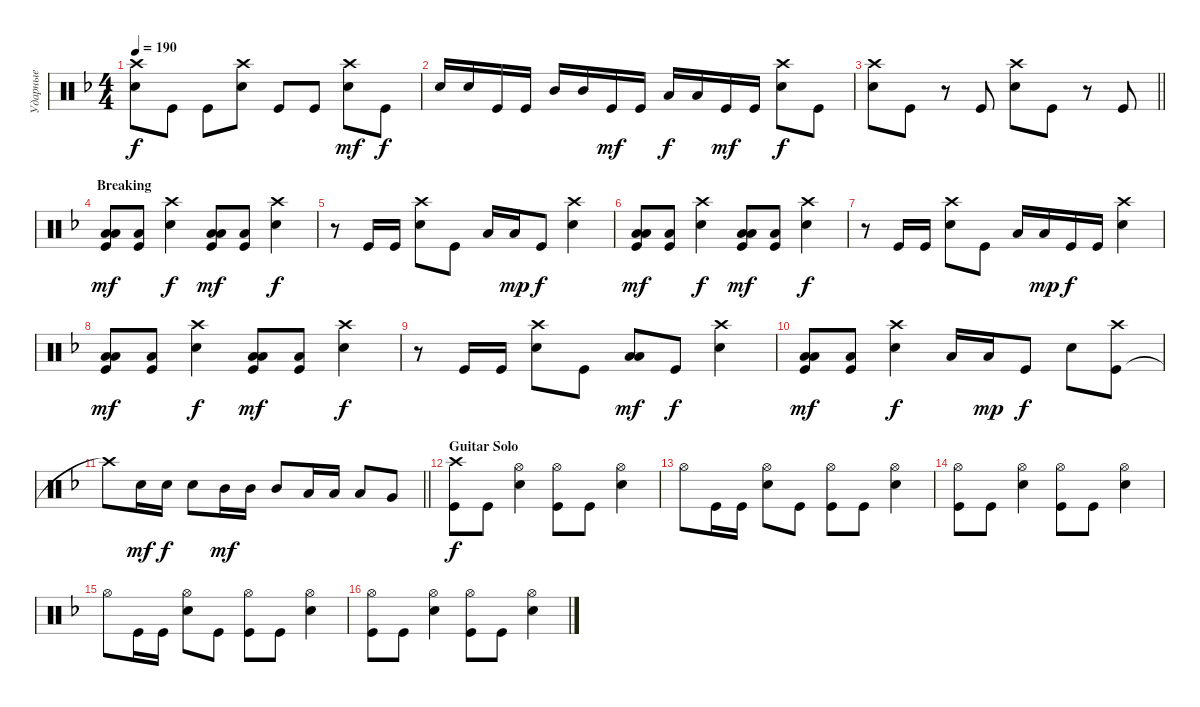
\track ("Ударные" "Ударные") {instrument percussion}
\staff {score}
\articulation defaults
\ts (4 4)
\tempo 190
\clef neutral
\ks dminor
("Snare (hit) 2" "Crash high (hit)").8{dy f} "Kick (hit)".8 "Kick (hit)".8 ("Snare (hit) 2" "Crash high (hit)").8 "Kick (hit)".8 "Kick (hit)".8 ("Snare (hit) 2" "Crash high (hit)").8{dy mf} "Kick (hit)".8{dy f} |
"Snare (hit) 2".16 "Snare (hit) 2".16 "Kick (hit)".16 "Kick (hit)".16 "Mid Tom (hit)".16 "Mid Tom (hit)".16 "Kick (hit)".16{dy mf} "Kick (hit)".16 "Low Tom (hit)".16{dy f} "Low Tom (hit)".16 "Kick (hit)".16{dy mf} "Kick (hit)".16 ("Snare (hit) 2" "Crash high (hit)").8{dy f} "Kick (hit)".8 |
\barLineRight lightlight
("Snare (hit) 2" "Crash high (hit)").8 "Kick (hit)".8 r.8 "Kick (hit)".8 ("Snare (hit) 2" "Crash high (hit)").8 "Kick (hit)".8 r.8 "Kick (hit)".8 |
\section ("" "Breaking")
("Low Tom (hit)" "Low Tom (hit)" "Kick (hit)").8{bd 240 dy mf} ("Kick (hit)" "Low Tom (hit)").8 ("Snare (hit) 2" "Crash high (hit)").4{dy f} ("Low Tom (hit)" "Low Tom (hit)" "Kick (hit)").8{bd 240 dy mf} ("Kick (hit)" "Low Tom (hit)").8 ("Snare (hit) 2" "Crash high (hit)").4{dy f} |
r.8 "Kick (hit)".16 "Kick (hit)".16 ("Snare (hit) 2" "Crash high (hit)").8 "Kick (hit)".8 "Low Tom (hit)".16{bd 240} "Low Tom (hit)".16{dy mp} "Kick (hit)".8{dy f} ("Snare (hit) 2" "Crash high (hit)").4 |
("Low Tom (hit)" "Kick (hit)" "Low Tom (hit)").8{bd 60 dy mf} ("Kick (hit)" "Low Tom (hit)").8 ("Snare (hit) 2" "Crash high (hit)").4{dy f} ("Low Tom (hit)" "Low Tom (hit)" "Kick (hit)").8{bd 60 dy mf} ("Kick (hit)" "Low Tom (hit)").8 ("Snare (hit) 2" "Crash high (hit)").4{dy f} |
r.8 "Kick (hit)".16 "Kick (hit)".16 ("Snare (hit) 2" "Crash high (hit)").8 "Kick (hit)".8 "Low Tom (hit)".16{bd 240} "Low Tom (hit)".16{dy mp} "Kick (hit)".16{dy f} "Kick (hit)".16 ("Snare (hit) 2" "Crash high (hit)").4 |
("Low Tom (hit)" "Kick (hit)" "Low Tom (hit)").8{bd 60 dy mf} ("Kick (hit)" "Low Tom (hit)").8 ("Snare (hit) 2" "Crash high (hit)").4{dy f} ("Low Tom (hit)" "Low Tom (hit)" "Kick (hit)").8{bd 60 dy mf} ("Kick (hit)" "Low Tom (hit)").8 ("Snare (hit) 2" "Crash high (hit)").4{dy f} |
r.8 "Kick (hit)".16 "Kick (hit)".16 ("Snare (hit) 2" "Crash high (hit)").8 "Kick (hit)".8 ("Low Tom (hit)" "Low Tom (hit)").8{bd 240 dy mf} "Kick (hit)".8{dy f} ("Snare (hit) 2" "Crash high (hit)").4 |
("Low Tom (hit)" "Kick (hit)" "Low Tom (hit)").8{bd 60 dy mf} ("Kick (hit)" "Low Tom (hit)").8 ("Snare (hit) 2" "Crash high (hit)").4{dy f} "Low Tom (hit)".16{bd 240} "Low Tom (hit)".16{dy mp} "Kick (hit)".8{dy f} "Snare (hit) 2".8 ("Kick (hit)" "Crash high (hit)").8 |
\barLineRight lightlight "Crash high (hit)"{t}.8 "Snare (hit) 2".16{dy mf} "Snare (hit) 2".16{dy f} "Snare (hit) 2".8 "Mid Tom (hit)".16{dy mf} "Mid Tom (hit)".16 "Mid Tom (hit)".8 "Low Tom (hit)".16 "Low Tom (hit)".16 "Low Tom (hit)".8 "Very Low Tom (hit)".8
|
\section ("" "Guitar Solo")
("Kick (hit)" "Crash high (hit)").8{dy f} "Kick (hit)".8 ("Snare (hit) 2" "Hi-Hat (open)").4 ("Kick (hit)" "Hi-Hat (open)").8 "Kick (hit)".8 ("Snare (hit) 2" "Hi-Hat (open)").4 |
"Hi-Hat (open)".8 "Kick (hit)".16 "Kick (hit)".16 ("Snare (hit) 2" "Hi-Hat (open)").8 "Kick (hit)".8 ("Kick (hit)" "Hi-Hat (open)").8 "Kick (hit)".8 ("Snare (hit) 2" "Hi-Hat (open)").4 |
("Kick (hit)" "Hi-Hat (open)").8 "Kick (hit)".8 ("Snare (hit) 2" "Hi-Hat (open)").4 ("Kick (hit)" "Hi-Hat (open)").8 "Kick (hit)".8 ("Snare (hit) 2" "Hi-Hat (open)").4 |
"Hi-Hat (open)".8 "Kick (hit)".16 "Kick (hit)".16 ("Snare (hit) 2" "Hi-Hat (open)").8 "Kick (hit)".8 ("Kick (hit)" "Hi-Hat (open)").8 "Kick (hit)".8 ("Snare (hit) 2" "Hi-Hat (open)").4 |
("Kick (hit)" "Hi-Hat (open)").8 "Kick (hit)".8 ("Snare (hit) 2" "Hi-Hat (open)").4 ("Kick (hit)" "Hi-Hat (open)").8 "Kick (hit)".8 ("Snare (hit) 2" "Hi-Hat (open)").4
